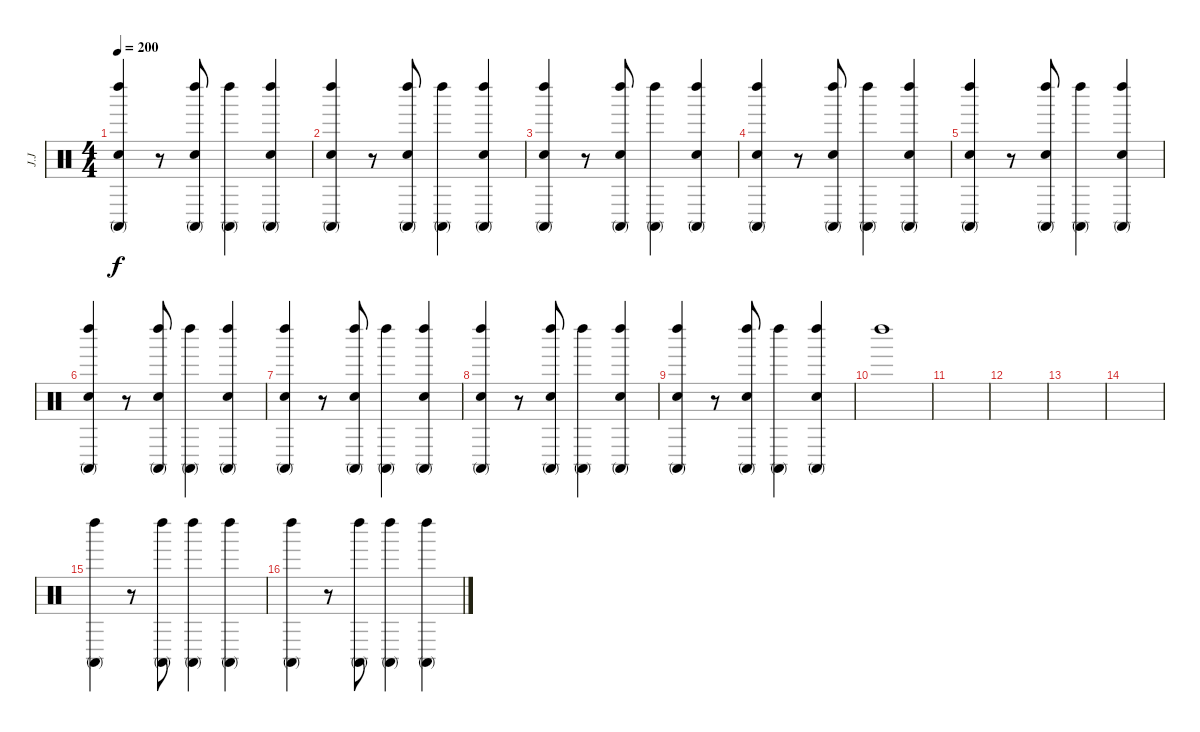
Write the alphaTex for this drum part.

\track ("J.J" "J.J") {instrument percussion}
\staff {score}
\articulation defaults
\ts (4 4)
\tempo 200
\clef neutral
\ks c
("Conga high (mute)" "Left Maraca (hit)" "Snare (hit) 2").4{dy f} r.8 ("Conga high (mute)" "Left Maraca (hit)" "Snare (hit) 2").8 ("Conga high (mute)" "Left Maraca (hit)").4 ("Conga high (mute)" "Left Maraca (hit)" "Snare (hit) 2").4 |
("Conga high (mute)" "Left Maraca (hit)" "Snare (hit) 2").4 r.8 ("Conga high (mute)" "Left Maraca (hit)" "Snare (hit) 2").8 ("Conga high (mute)" "Left Maraca (hit)").4 ("Conga high (mute)" "Left Maraca (hit)" "Snare (hit) 2").4 |
("Conga high (mute)" "Left Maraca (hit)" "Snare (hit) 2").4 r.8 ("Conga high (mute)" "Left Maraca (hit)" "Snare (hit) 2").8 ("Conga high (mute)" "Left Maraca (hit)").4 ("Conga high (mute)" "Left Maraca (hit)" "Snare (hit) 2").4 |
("Conga high (mute)" "Left Maraca (hit)" "Snare (hit) 2").4 r.8 ("Conga high (mute)" "Left Maraca (hit)" "Snare (hit) 2").8 ("Conga high (mute)" "Left Maraca (hit)").4 ("Conga high (mute)" "Left Maraca (hit)" "Snare (hit) 2").4 |
("Conga high (mute)" "Left Maraca (hit)" "Snare (hit) 2").4 r.8 ("Conga high (mute)" "Left Maraca (hit)" "Snare (hit) 2").8 ("Conga high (mute)" "Left Maraca (hit)").4 ("Conga high (mute)" "Left Maraca (hit)" "Snare (hit) 2").4 |
("Conga high (mute)" "Left Maraca (hit)" "Snare (hit) 2").4 r.8 ("Conga high (mute)" "Left Maraca (hit)" "Snare (hit) 2").8 ("Conga high (mute)" "Left Maraca (hit)").4 ("Conga high (mute)" "Left Maraca (hit)" "Snare (hit) 2").4 |
("Conga high (mute)" "Left Maraca (hit)" "Snare (hit) 2").4 r.8 ("Conga high (mute)" "Left Maraca (hit)" "Snare (hit) 2").8 ("Conga high (mute)" "Left Maraca (hit)").4 ("Conga high (mute)" "Left Maraca (hit)" "Snare (hit) 2").4 |
("Conga high (mute)" "Left Maraca (hit)" "Snare (hit) 2").4 r.8 ("Conga high (mute)" "Left Maraca (hit)" "Snare (hit) 2").8 ("Conga high (mute)" "Left Maraca (hit)").4 ("Conga high (mute)" "Left Maraca (hit)" "Snare (hit) 2").4 |
("Conga high (mute)" "Left Maraca (hit)" "Snare (hit) 2").4 r.8 ("Conga high (mute)" "Left Maraca (hit)" "Snare (hit) 2").8 ("Conga high (mute)" "Left Maraca (hit)").4 ("Conga high (mute)" "Left Maraca (hit)" "Snare (hit) 2").4 |
"Left Maraca (hit)".1 |
|
|
|
|
("Conga high (mute)" "Left Maraca (hit)").4 r.8 ("Conga high (mute)" "Left Maraca (hit)").8 ("Conga high (mute)" "Left Maraca (hit)").4 ("Conga high (mute)" "Left Maraca (hit)").4 |
("Conga high (mute)" "Left Maraca (hit)").4 r.8 ("Conga high (mute)" "Left Maraca (hit)").8 ("Conga high (mute)" "Left Maraca (hit)").4 ("Conga high (mute)" "Left Maraca (hit)").4
